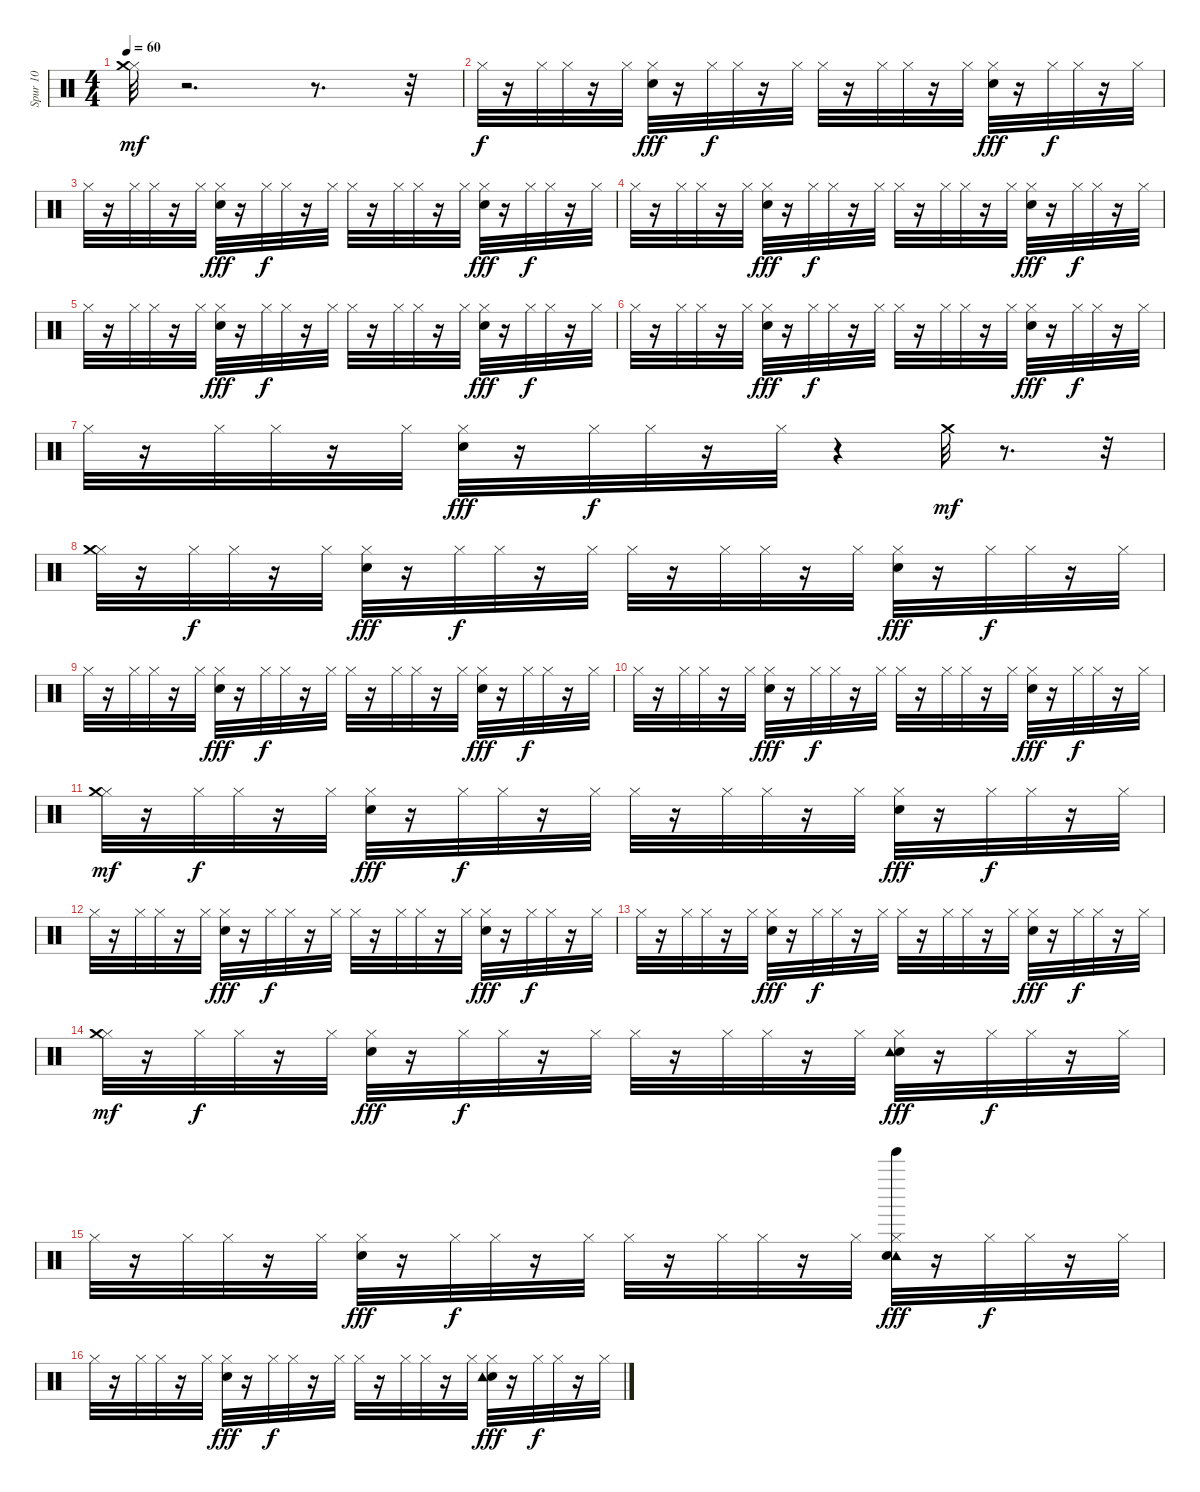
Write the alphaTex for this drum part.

\track ("Spur 10" "Spur 10") {instrument percussion}
\staff {score}
\articulation defaults
\ts (4 4)
\tempo 60
\clef neutral
\ks c
("Hi-Hat (closed)" "Crash medium (hit)").32{dy mf} r.2{d} r.8{d} r.32 |
"Hi-Hat (closed)".32{dy f} r.16 "Hi-Hat (closed)".32 "Hi-Hat (closed)".32 r.16 "Hi-Hat (closed)".32 ("Snare (hit) 2" "Hi-Hat (closed)").32{dy fff} r.16 "Hi-Hat (closed)".32{dy f} "Hi-Hat (closed)".32 r.16 "Hi-Hat (closed)".32 "Hi-Hat (closed)".32 r.16 "Hi-Hat (closed)".32 "Hi-Hat (closed)".32 r.16 "Hi-Hat (closed)".32 ("Snare (hit) 2" "Hi-Hat (closed)").32{dy fff} r.16 "Hi-Hat (closed)".32{dy f} "Hi-Hat (closed)".32 r.16 "Hi-Hat (closed)".32 |
"Hi-Hat (closed)".32 r.16 "Hi-Hat (closed)".32 "Hi-Hat (closed)".32 r.16 "Hi-Hat (closed)".32 ("Snare (hit) 2" "Hi-Hat (closed)").32{dy fff} r.16 "Hi-Hat (closed)".32{dy f} "Hi-Hat (closed)".32 r.16 "Hi-Hat (closed)".32 "Hi-Hat (closed)".32 r.16 "Hi-Hat (closed)".32 "Hi-Hat (closed)".32 r.16 "Hi-Hat (closed)".32 ("Snare (hit) 2" "Hi-Hat (closed)").32{dy fff} r.16 "Hi-Hat (closed)".32{dy f} "Hi-Hat (closed)".32 r.16 "Hi-Hat (closed)".32 |
"Hi-Hat (closed)".32 r.16 "Hi-Hat (closed)".32 "Hi-Hat (closed)".32 r.16 "Hi-Hat (closed)".32 ("Snare (hit) 2" "Hi-Hat (closed)").32{dy fff} r.16 "Hi-Hat (closed)".32{dy f} "Hi-Hat (closed)".32 r.16 "Hi-Hat (closed)".32 "Hi-Hat (closed)".32 r.16 "Hi-Hat (closed)".32 "Hi-Hat (closed)".32 r.16 "Hi-Hat (closed)".32 ("Snare (hit) 2" "Hi-Hat (closed)").32{dy fff} r.16 "Hi-Hat (closed)".32{dy f} "Hi-Hat (closed)".32 r.16 "Hi-Hat (closed)".32 |
"Hi-Hat (closed)".32 r.16 "Hi-Hat (closed)".32 "Hi-Hat (closed)".32 r.16 "Hi-Hat (closed)".32 ("Snare (hit) 2" "Hi-Hat (closed)").32{dy fff} r.16 "Hi-Hat (closed)".32{dy f} "Hi-Hat (closed)".32 r.16 "Hi-Hat (closed)".32 "Hi-Hat (closed)".32 r.16 "Hi-Hat (closed)".32 "Hi-Hat (closed)".32 r.16 "Hi-Hat (closed)".32 ("Snare (hit) 2" "Hi-Hat (closed)").32{dy fff} r.16 "Hi-Hat (closed)".32{dy f} "Hi-Hat (closed)".32 r.16 "Hi-Hat (closed)".32 |
"Hi-Hat (closed)".32 r.16 "Hi-Hat (closed)".32 "Hi-Hat (closed)".32 r.16 "Hi-Hat (closed)".32 ("Snare (hit) 2" "Hi-Hat (closed)").32{dy fff} r.16 "Hi-Hat (closed)".32{dy f} "Hi-Hat (closed)".32 r.16 "Hi-Hat (closed)".32 "Hi-Hat (closed)".32 r.16 "Hi-Hat (closed)".32 "Hi-Hat (closed)".32 r.16 "Hi-Hat (closed)".32 ("Snare (hit) 2" "Hi-Hat (closed)").32{dy fff} r.16 "Hi-Hat (closed)".32{dy f} "Hi-Hat (closed)".32 r.16 "Hi-Hat (closed)".32 |
"Hi-Hat (closed)".32 r.16 "Hi-Hat (closed)".32 "Hi-Hat (closed)".32 r.16 "Hi-Hat (closed)".32 ("Snare (hit) 2" "Hi-Hat (closed)").32{dy fff} r.16 "Hi-Hat (closed)".32{dy f} "Hi-Hat (closed)".32 r.16 "Hi-Hat (closed)".32 r.4 "Crash medium (hit)".32{dy mf} r.8{d} r.32 |
("Hi-Hat (closed)" "Crash medium (hit)").32 r.16 "Hi-Hat (closed)".32{dy f} "Hi-Hat (closed)".32 r.16 "Hi-Hat (closed)".32 ("Electric Snare (hit)" "Hi-Hat (closed)").32{dy fff} r.16 "Hi-Hat (closed)".32{dy f} "Hi-Hat (closed)".32 r.16 "Hi-Hat (closed)".32 "Hi-Hat (closed)".32 r.16 "Hi-Hat (closed)".32 "Hi-Hat (closed)".32 r.16 "Hi-Hat (closed)".32 ("Electric Snare (hit)" "Hi-Hat (closed)").32{dy fff} r.16 "Hi-Hat (closed)".32{dy f} "Hi-Hat (closed)".32 r.16 "Hi-Hat (closed)".32 |
"Hi-Hat (closed)".32 r.16 "Hi-Hat (closed)".32 "Hi-Hat (closed)".32 r.16 "Hi-Hat (closed)".32 ("Electric Snare (hit)" "Hi-Hat (closed)").32{dy fff} r.16 "Hi-Hat (closed)".32{dy f} "Hi-Hat (closed)".32 r.16 "Hi-Hat (closed)".32 "Hi-Hat (closed)".32 r.16 "Hi-Hat (closed)".32 "Hi-Hat (closed)".32 r.16 "Hi-Hat (closed)".32 ("Electric Snare (hit)" "Hi-Hat (closed)").32{dy fff} r.16 "Hi-Hat (closed)".32{dy f} "Hi-Hat (closed)".32 r.16 "Hi-Hat (closed)".32 |
"Hi-Hat (closed)".32 r.16 "Hi-Hat (closed)".32 "Hi-Hat (closed)".32 r.16 "Hi-Hat (closed)".32 ("Electric Snare (hit)" "Hi-Hat (closed)").32{dy fff} r.16 "Hi-Hat (closed)".32{dy f} "Hi-Hat (closed)".32 r.16 "Hi-Hat (closed)".32 "Hi-Hat (closed)".32 r.16 "Hi-Hat (closed)".32 "Hi-Hat (closed)".32 r.16 "Hi-Hat (closed)".32 ("Electric Snare (hit)" "Hi-Hat (closed)").32{dy fff} r.16 "Hi-Hat (closed)".32{dy f} "Hi-Hat (closed)".32 r.16 "Hi-Hat (closed)".32 |
("Hi-Hat (closed)" "Crash medium (hit)").32{dy mf} r.16 "Hi-Hat (closed)".32{dy f} "Hi-Hat (closed)".32 r.16 "Hi-Hat (closed)".32 ("Electric Snare (hit)" "Hi-Hat (closed)").32{dy fff} r.16 "Hi-Hat (closed)".32{dy f} "Hi-Hat (closed)".32 r.16 "Hi-Hat (closed)".32 "Hi-Hat (closed)".32 r.16 "Hi-Hat (closed)".32 "Hi-Hat (closed)".32 r.16 "Hi-Hat (closed)".32 ("Electric Snare (hit)" "Hi-Hat (closed)").32{dy fff} r.16 "Hi-Hat (closed)".32{dy f} "Hi-Hat (closed)".32 r.16 "Hi-Hat (closed)".32 |
"Hi-Hat (closed)".32 r.16 "Hi-Hat (closed)".32 "Hi-Hat (closed)".32 r.16 "Hi-Hat (closed)".32 ("Electric Snare (hit)" "Hi-Hat (closed)").32{dy fff} r.16 "Hi-Hat (closed)".32{dy f} "Hi-Hat (closed)".32 r.16 "Hi-Hat (closed)".32 "Hi-Hat (closed)".32 r.16 "Hi-Hat (closed)".32 "Hi-Hat (closed)".32 r.16 "Hi-Hat (closed)".32 ("Electric Snare (hit)" "Hi-Hat (closed)").32{dy fff} r.16 "Hi-Hat (closed)".32{dy f} "Hi-Hat (closed)".32 r.16 "Hi-Hat (closed)".32 |
"Hi-Hat (closed)".32 r.16 "Hi-Hat (closed)".32 "Hi-Hat (closed)".32 r.16 "Hi-Hat (closed)".32 ("Electric Snare (hit)" "Hi-Hat (closed)").32{dy fff} r.16 "Hi-Hat (closed)".32{dy f} "Hi-Hat (closed)".32 r.16 "Hi-Hat (closed)".32 "Hi-Hat (closed)".32 r.16 "Hi-Hat (closed)".32 "Hi-Hat (closed)".32 r.16 "Hi-Hat (closed)".32 ("Electric Snare (hit)" "Hi-Hat (closed)").32{dy fff} r.16 "Hi-Hat (closed)".32{dy f} "Hi-Hat (closed)".32 r.16 "Hi-Hat (closed)".32 |
("Hi-Hat (closed)" "Crash medium (hit)").32{dy mf} r.16 "Hi-Hat (closed)".32{dy f} "Hi-Hat (closed)".32 r.16 "Hi-Hat (closed)".32 ("Electric Snare (hit)" "Hi-Hat (closed)").32{dy fff} r.16 "Hi-Hat (closed)".32{dy f} "Hi-Hat (closed)".32 r.16 "Hi-Hat (closed)".32 "Hi-Hat (closed)".32 r.16 "Hi-Hat (closed)".32 "Hi-Hat (closed)".32 r.16 "Hi-Hat (closed)".32 ("Electric Snare (hit)" "Hi-Hat (closed)" "Tambourine (hit)").32{dy fff} r.16 "Hi-Hat (closed)".32{dy f} "Hi-Hat (closed)".32 r.16 "Hi-Hat (closed)".32 |
"Hi-Hat (closed)".32 r.16 "Hi-Hat (closed)".32 "Hi-Hat (closed)".32 r.16 "Hi-Hat (closed)".32 ("Electric Snare (hit)" "Hi-Hat (closed)").32{dy fff} r.16 "Hi-Hat (closed)".32{dy f} "Hi-Hat (closed)".32 r.16 "Hi-Hat (closed)".32 "Hi-Hat (closed)".32 r.16 "Hi-Hat (closed)".32 "Hi-Hat (closed)".32 r.16 "Hi-Hat (closed)".32 ("Tinkle Bell (hit)" "Tambourine (hit)" "Hi-Hat (closed)" "Electric Snare (hit)").32{dy fff} r.16 "Hi-Hat (closed)".32{dy f} "Hi-Hat (closed)".32 r.16 "Hi-Hat (closed)".32 |
"Hi-Hat (closed)".32 r.16 "Hi-Hat (closed)".32 "Hi-Hat (closed)".32 r.16 "Hi-Hat (closed)".32 ("Electric Snare (hit)" "Hi-Hat (closed)").32{dy fff} r.16 "Hi-Hat (closed)".32{dy f} "Hi-Hat (closed)".32 r.16 "Hi-Hat (closed)".32 "Hi-Hat (closed)".32 r.16 "Hi-Hat (closed)".32 "Hi-Hat (closed)".32 r.16 "Hi-Hat (closed)".32 ("Electric Snare (hit)" "Hi-Hat (closed)" "Tambourine (hit)").32{dy fff} r.16 "Hi-Hat (closed)".32{dy f} "Hi-Hat (closed)".32 r.16 "Hi-Hat (closed)".32
